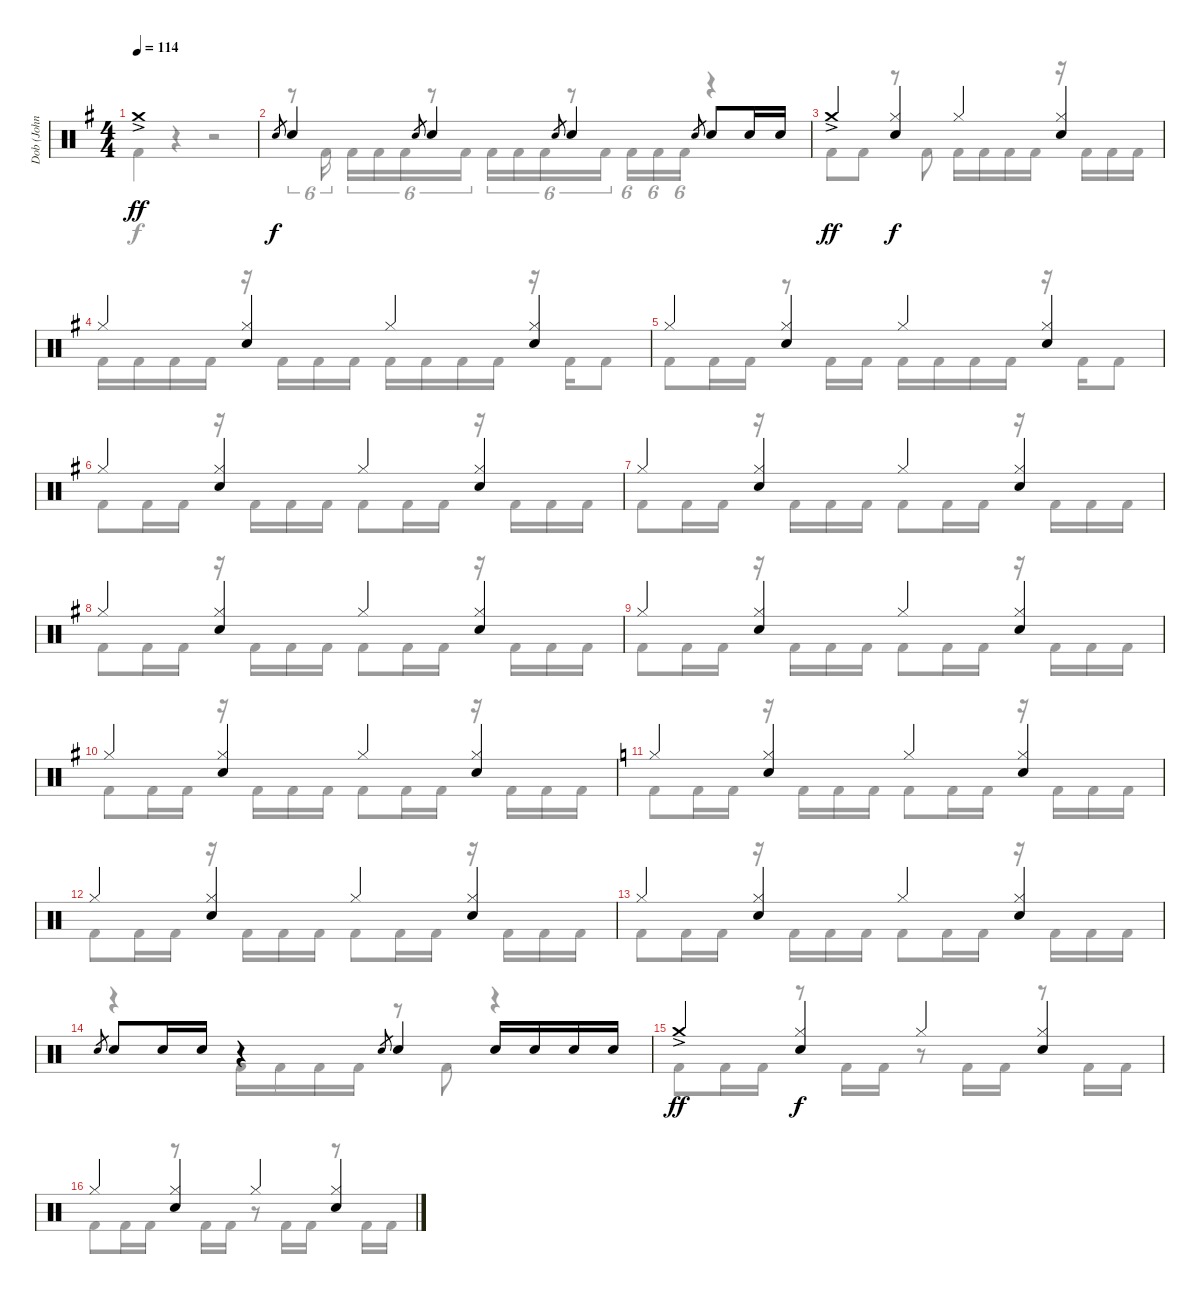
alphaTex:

\track ("Dob (John Macaluso)" "Dob (John ") {instrument percussion}
\staff {score}
\articulation defaults
\voice
\ts (4 4)
\tempo 114
\clef neutral
\ks g "Crash medium (hit)"{ac}.1{dy ff}
|
"Electric Snare (hit)".8{gr dy f} "Electric Snare (hit)".4 "Electric Snare (hit)".8{gr} "Electric Snare (hit)".4 "Electric Snare (hit)".8{gr} "Electric Snare (hit)".4 "Electric Snare (hit)".8{gr} "Electric Snare (hit)".8 "Electric Snare (hit)".16 "Electric Snare (hit)".16 |
"Crash medium (hit)"{ac}.4{dy ff} ("Hi-Hat (closed)" "Electric Snare (hit)").4{dy f} "Hi-Hat (closed)".4 ("Hi-Hat (closed)" "Electric Snare (hit)").4 |
"Hi-Hat (closed)".4 ("Hi-Hat (closed)" "Electric Snare (hit)").4 "Hi-Hat (closed)".4 ("Hi-Hat (closed)" "Electric Snare (hit)").4 |
"Hi-Hat (closed)".4 ("Hi-Hat (closed)" "Electric Snare (hit)").4 "Hi-Hat (closed)".4 ("Hi-Hat (closed)" "Electric Snare (hit)").4 |
"Hi-Hat (closed)".4 ("Hi-Hat (closed)" "Electric Snare (hit)").4 "Hi-Hat (closed)".4 ("Hi-Hat (closed)" "Electric Snare (hit)").4 |
"Hi-Hat (closed)".4 ("Hi-Hat (closed)" "Electric Snare (hit)").4 "Hi-Hat (closed)".4 ("Hi-Hat (closed)" "Electric Snare (hit)").4 |
"Hi-Hat (closed)".4 ("Hi-Hat (closed)" "Electric Snare (hit)").4 "Hi-Hat (closed)".4 ("Hi-Hat (closed)" "Electric Snare (hit)").4 |
"Hi-Hat (closed)".4 ("Hi-Hat (closed)" "Electric Snare (hit)").4 "Hi-Hat (closed)".4 ("Hi-Hat (closed)" "Electric Snare (hit)").4 |
"Hi-Hat (closed)".4 ("Hi-Hat (closed)" "Electric Snare (hit)").4 "Hi-Hat (closed)".4 ("Hi-Hat (closed)" "Electric Snare (hit)").4 |
\ks c "Hi-Hat (closed)".4
("Hi-Hat (closed)" "Electric Snare (hit)").4 "Hi-Hat (closed)".4 ("Hi-Hat (closed)" "Electric Snare (hit)").4 |
"Hi-Hat (closed)".4 ("Hi-Hat (closed)" "Electric Snare (hit)").4 "Hi-Hat (closed)".4 ("Hi-Hat (closed)" "Electric Snare (hit)").4 |
"Hi-Hat (closed)".4 ("Hi-Hat (closed)" "Electric Snare (hit)").4 "Hi-Hat (closed)".4 ("Hi-Hat (closed)" "Electric Snare (hit)").4 |
"Electric Snare (hit)".8{gr} "Electric Snare (hit)".8 "Electric Snare (hit)".16 "Electric Snare (hit)".16 r.4 "Electric Snare (hit)".8{gr} "Electric Snare (hit)".4 "Electric Snare (hit)".16 "Electric Snare (hit)".16 "Electric Snare (hit)".16 "Electric Snare (hit)".16 |
"Crash medium (hit)"{ac}.4{dy ff} ("Hi-Hat (closed)" "Electric Snare (hit)").4{dy f} "Hi-Hat (closed)".4 ("Hi-Hat (closed)" "Electric Snare (hit)").4 |
"Hi-Hat (closed)".4 ("Hi-Hat (closed)" "Electric Snare (hit)").4 "Hi-Hat (closed)".4 ("Hi-Hat (closed)" "Electric Snare (hit)").4
\voice
\clef neutral
\ottava regular
\simile none
\ks g "Kick (hit) 2".4{dy f}
r.4 r.2 |
r.8{tu (6 4)} "Kick (hit) 2".16{tu (6 4)} "Kick (hit) 2".16{tu (6 4) beam merge} "Kick (hit) 2".16{tu (6 4)} "Kick (hit) 2".16{tu (6 4)} r.8{tu (6 4)} "Kick (hit) 2".16{tu (6 4)} "Kick (hit) 2".16{tu (6 4) beam merge} "Kick (hit) 2".16{tu (6 4)} "Kick (hit) 2".16{tu (6 4)} r.8{tu (6 4)} "Kick (hit) 2".16{tu (6 4)} "Kick (hit) 2".16{tu (6 4) beam merge} "Kick (hit) 2".16{tu (6 4)} "Kick (hit) 2".16{tu (6 4)} r.4 |
"Kick (hit) 2".8 "Kick (hit) 2".8 r.8 "Kick (hit) 2".8 "Kick (hit) 2".16 "Kick (hit) 2".16 "Kick (hit) 2".16 "Kick (hit) 2".16 r.16 "Kick (hit) 2".16 "Kick (hit) 2".16 "Kick (hit) 2".16 |
"Kick (hit) 2".16 "Kick (hit) 2".16 "Kick (hit) 2".16 "Kick (hit) 2".16 r.16 "Kick (hit) 2".16 "Kick (hit) 2".16 "Kick (hit) 2".16 "Kick (hit) 2".16 "Kick (hit) 2".16 "Kick (hit) 2".16 "Kick (hit) 2".16 r.16 "Kick (hit) 2".16 "Kick (hit) 2".8 |
"Kick (hit) 2".8 "Kick (hit) 2".16 "Kick (hit) 2".16 r.8 "Kick (hit) 2".16 "Kick (hit) 2".16 "Kick (hit) 2".16 "Kick (hit) 2".16 "Kick (hit) 2".16 "Kick (hit) 2".16 r.16 "Kick (hit) 2".16 "Kick (hit) 2".8 |
"Kick (hit) 2".8 "Kick (hit) 2".16 "Kick (hit) 2".16 r.16 "Kick (hit) 2".16 "Kick (hit) 2".16 "Kick (hit) 2".16 "Kick (hit) 2".8 "Kick (hit) 2".16 "Kick (hit) 2".16 r.16 "Kick (hit) 2".16 "Kick (hit) 2".16 "Kick (hit) 2".16 |
"Kick (hit) 2".8 "Kick (hit) 2".16 "Kick (hit) 2".16 r.16 "Kick (hit) 2".16 "Kick (hit) 2".16 "Kick (hit) 2".16 "Kick (hit) 2".8 "Kick (hit) 2".16 "Kick (hit) 2".16 r.16 "Kick (hit) 2".16 "Kick (hit) 2".16 "Kick (hit) 2".16 |
"Kick (hit) 2".8 "Kick (hit) 2".16 "Kick (hit) 2".16 r.16 "Kick (hit) 2".16 "Kick (hit) 2".16 "Kick (hit) 2".16 "Kick (hit) 2".8 "Kick (hit) 2".16 "Kick (hit) 2".16 r.16 "Kick (hit) 2".16 "Kick (hit) 2".16 "Kick (hit) 2".16 |
"Kick (hit) 2".8 "Kick (hit) 2".16 "Kick (hit) 2".16 r.16 "Kick (hit) 2".16 "Kick (hit) 2".16 "Kick (hit) 2".16 "Kick (hit) 2".8 "Kick (hit) 2".16 "Kick (hit) 2".16 r.16 "Kick (hit) 2".16 "Kick (hit) 2".16 "Kick (hit) 2".16 |
"Kick (hit) 2".8 "Kick (hit) 2".16 "Kick (hit) 2".16 r.16 "Kick (hit) 2".16 "Kick (hit) 2".16 "Kick (hit) 2".16 "Kick (hit) 2".8 "Kick (hit) 2".16 "Kick (hit) 2".16 r.16 "Kick (hit) 2".16 "Kick (hit) 2".16 "Kick (hit) 2".16 |
\ks c "Kick (hit) 2".8 "Kick (hit) 2".16 "Kick (hit) 2".16
r.16 "Kick (hit) 2".16 "Kick (hit) 2".16 "Kick (hit) 2".16 "Kick (hit) 2".8 "Kick (hit) 2".16 "Kick (hit) 2".16 r.16 "Kick (hit) 2".16 "Kick (hit) 2".16 "Kick (hit) 2".16 |
"Kick (hit) 2".8 "Kick (hit) 2".16 "Kick (hit) 2".16 r.16 "Kick (hit) 2".16 "Kick (hit) 2".16 "Kick (hit) 2".16 "Kick (hit) 2".8 "Kick (hit) 2".16 "Kick (hit) 2".16 r.16 "Kick (hit) 2".16 "Kick (hit) 2".16 "Kick (hit) 2".16 |
"Kick (hit) 2".8 "Kick (hit) 2".16 "Kick (hit) 2".16 r.16 "Kick (hit) 2".16 "Kick (hit) 2".16 "Kick (hit) 2".16 "Kick (hit) 2".8 "Kick (hit) 2".16 "Kick (hit) 2".16 r.16 "Kick (hit) 2".16 "Kick (hit) 2".16 "Kick (hit) 2".16 |
r.4 "Kick (hit) 2".16 "Kick (hit) 2".16 "Kick (hit) 2".16 "Kick (hit) 2".16 r.8 "Kick (hit) 2".8 r.4 |
"Kick (hit) 2".8 "Kick (hit) 2".16 "Kick (hit) 2".16 r.8 "Kick (hit) 2".16 "Kick (hit) 2".16 r.8 "Kick (hit) 2".16 "Kick (hit) 2".16 r.8 "Kick (hit) 2".16 "Kick (hit) 2".16 |
"Kick (hit) 2".8 "Kick (hit) 2".16 "Kick (hit) 2".16 r.8 "Kick (hit) 2".16 "Kick (hit) 2".16 r.8 "Kick (hit) 2".16 "Kick (hit) 2".16 r.8 "Kick (hit) 2".16 "Kick (hit) 2".16
